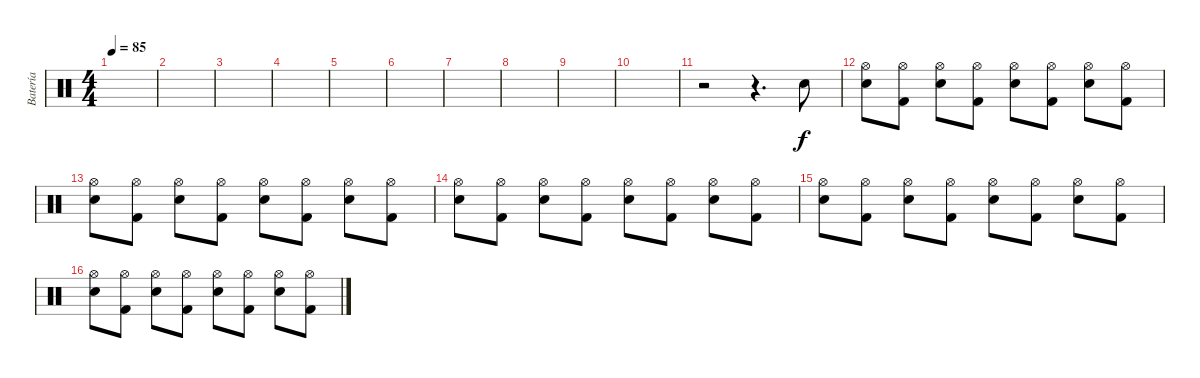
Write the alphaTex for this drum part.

\track ("Batería" "Batería") {instrument percussion}
\staff {score}
\articulation defaults
\ts (4 4)
\tempo 85
\clef neutral
\ks c
|
|
|
|
|
|
|
|
|
|
r.2 r.4{d} "Electric Snare (hit)".8 |
("Hi-Hat (open)" "Electric Snare (hit)").8 ("Hi-Hat (open)" "Kick (hit) 2").8 ("Hi-Hat (open)" "Electric Snare (hit)").8 ("Hi-Hat (open)" "Kick (hit) 2").8 ("Hi-Hat (open)" "Electric Snare (hit)").8 ("Hi-Hat (open)" "Kick (hit) 2").8 ("Hi-Hat (open)" "Electric Snare (hit)").8 ("Hi-Hat (open)" "Kick (hit) 2").8 |
("Hi-Hat (open)" "Electric Snare (hit)").8 ("Hi-Hat (open)" "Kick (hit) 2").8 ("Hi-Hat (open)" "Electric Snare (hit)").8 ("Hi-Hat (open)" "Kick (hit) 2").8 ("Hi-Hat (open)" "Electric Snare (hit)").8 ("Hi-Hat (open)" "Kick (hit) 2").8 ("Hi-Hat (open)" "Electric Snare (hit)").8 ("Hi-Hat (open)" "Kick (hit) 2").8 |
("Hi-Hat (open)" "Electric Snare (hit)").8 ("Hi-Hat (open)" "Kick (hit) 2").8 ("Hi-Hat (open)" "Electric Snare (hit)").8 ("Hi-Hat (open)" "Kick (hit) 2").8 ("Hi-Hat (open)" "Electric Snare (hit)").8 ("Hi-Hat (open)" "Kick (hit) 2").8 ("Hi-Hat (open)" "Electric Snare (hit)").8 ("Hi-Hat (open)" "Kick (hit) 2").8 |
("Hi-Hat (open)" "Electric Snare (hit)").8 ("Hi-Hat (open)" "Kick (hit) 2").8 ("Hi-Hat (open)" "Electric Snare (hit)").8 ("Hi-Hat (open)" "Kick (hit) 2").8 ("Hi-Hat (open)" "Electric Snare (hit)").8 ("Hi-Hat (open)" "Kick (hit) 2").8 ("Hi-Hat (open)" "Electric Snare (hit)").8 ("Hi-Hat (open)" "Kick (hit) 2").8 |
("Hi-Hat (open)" "Electric Snare (hit)").8 ("Hi-Hat (open)" "Kick (hit) 2").8 ("Hi-Hat (open)" "Electric Snare (hit)").8 ("Hi-Hat (open)" "Kick (hit) 2").8 ("Hi-Hat (open)" "Electric Snare (hit)").8 ("Hi-Hat (open)" "Kick (hit) 2").8 ("Hi-Hat (open)" "Electric Snare (hit)").8 ("Hi-Hat (open)" "Kick (hit) 2").8
